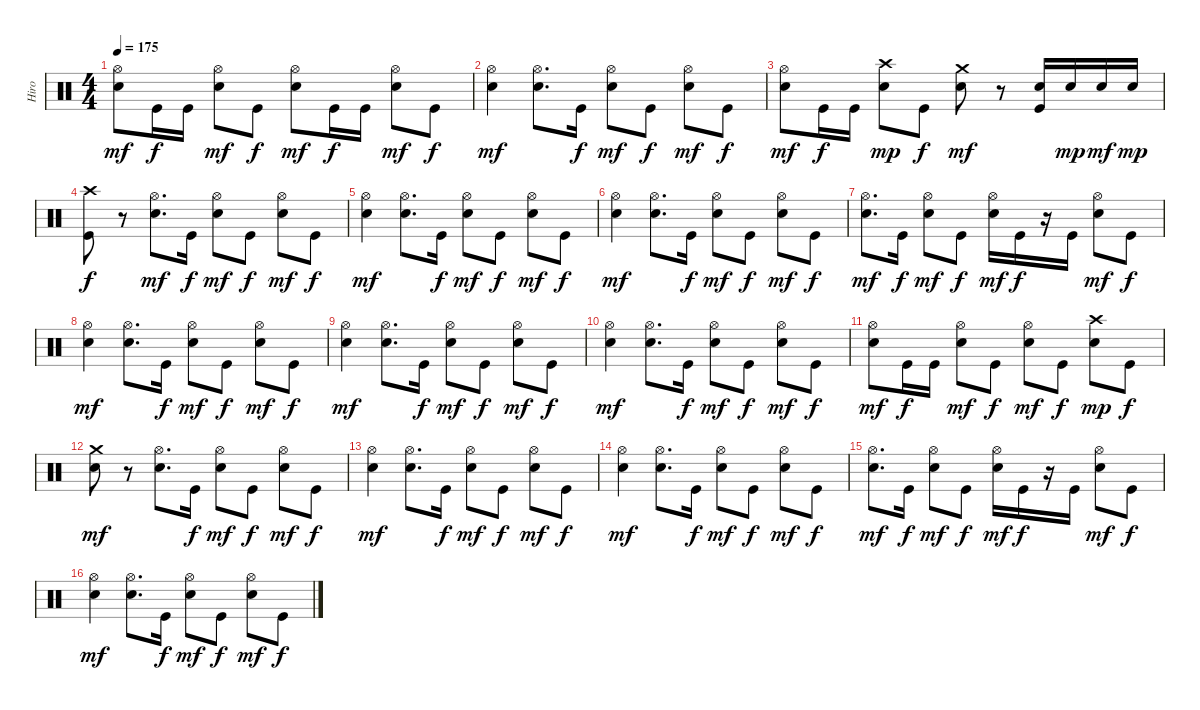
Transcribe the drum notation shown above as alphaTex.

\track ("Hiro" "Hiro") {instrument percussion}
\staff {score}
\articulation defaults
\ts (4 4)
\tempo 175
\clef neutral
\ks c
("Electric Snare (hit)" "Hi-Hat (open)").8{dy mf} "Kick (hit)".16{dy f} "Kick (hit)".16 ("Electric Snare (hit)" "Hi-Hat (open)").8{dy mf} "Kick (hit)".8{dy f} ("Electric Snare (hit)" "Hi-Hat (open)").8{dy mf} "Kick (hit)".16{dy f} "Kick (hit)".16 ("Electric Snare (hit)" "Hi-Hat (open)").8{dy mf} "Kick (hit)".8{dy f} |
("Electric Snare (hit)" "Hi-Hat (open)").4{dy mf} ("Electric Snare (hit)" "Hi-Hat (open)").8{d} "Kick (hit)".16{dy f} ("Electric Snare (hit)" "Hi-Hat (open)").8{dy mf} "Kick (hit)".8{dy f} ("Electric Snare (hit)" "Hi-Hat (open)").8{dy mf} "Kick (hit)".8{dy f} |
("Electric Snare (hit)" "Hi-Hat (open)").8{dy mf} "Kick (hit)".16{dy f} "Kick (hit)".16 ("Crash high (hit)" "Electric Snare (hit)").8{dy mp} "Kick (hit)".8{dy f} ("Crash medium (hit)" "Electric Snare (hit)").8{dy mf} r.8 ("Electric Snare (hit)" "Kick (hit)").16 "Electric Snare (hit)".16{dy mp} "Electric Snare (hit)".16{dy mf} "Electric Snare (hit)".16{dy mp} |
("Crash high (hit)" "Kick (hit)").8{dy f} r.8 ("Electric Snare (hit)" "Hi-Hat (open)").8{d dy mf} "Kick (hit)".16{dy f} ("Electric Snare (hit)" "Hi-Hat (open)").8{dy mf} "Kick (hit)".8{dy f} ("Electric Snare (hit)" "Hi-Hat (open)").8{dy mf} "Kick (hit)".8{dy f} |
("Electric Snare (hit)" "Hi-Hat (open)").4{dy mf} ("Electric Snare (hit)" "Hi-Hat (open)").8{d} "Kick (hit)".16{dy f} ("Electric Snare (hit)" "Hi-Hat (open)").8{dy mf} "Kick (hit)".8{dy f} ("Electric Snare (hit)" "Hi-Hat (open)").8{dy mf} "Kick (hit)".8{dy f} |
("Electric Snare (hit)" "Hi-Hat (open)").4{dy mf} ("Electric Snare (hit)" "Hi-Hat (open)").8{d} "Kick (hit)".16{dy f} ("Electric Snare (hit)" "Hi-Hat (open)").8{dy mf} "Kick (hit)".8{dy f} ("Electric Snare (hit)" "Hi-Hat (open)").8{dy mf} "Kick (hit)".8{dy f} |
("Electric Snare (hit)" "Hi-Hat (open)").8{d dy mf} "Kick (hit)".16{dy f} ("Electric Snare (hit)" "Hi-Hat (open)").8{dy mf} "Kick (hit)".8{dy f} ("Electric Snare (hit)" "Hi-Hat (open)").16{dy mf} "Kick (hit)".16{dy f} r.16 "Kick (hit)".16 ("Electric Snare (hit)" "Hi-Hat (open)").8{dy mf} "Kick (hit)".8{dy f} |
("Electric Snare (hit)" "Hi-Hat (open)").4{dy mf} ("Electric Snare (hit)" "Hi-Hat (open)").8{d} "Kick (hit)".16{dy f} ("Electric Snare (hit)" "Hi-Hat (open)").8{dy mf} "Kick (hit)".8{dy f} ("Electric Snare (hit)" "Hi-Hat (open)").8{dy mf} "Kick (hit)".8{dy f} |
("Electric Snare (hit)" "Hi-Hat (open)").4{dy mf} ("Electric Snare (hit)" "Hi-Hat (open)").8{d} "Kick (hit)".16{dy f} ("Electric Snare (hit)" "Hi-Hat (open)").8{dy mf} "Kick (hit)".8{dy f} ("Electric Snare (hit)" "Hi-Hat (open)").8{dy mf} "Kick (hit)".8{dy f} |
("Electric Snare (hit)" "Hi-Hat (open)").4{dy mf} ("Electric Snare (hit)" "Hi-Hat (open)").8{d} "Kick (hit)".16{dy f} ("Electric Snare (hit)" "Hi-Hat (open)").8{dy mf} "Kick (hit)".8{dy f} ("Electric Snare (hit)" "Hi-Hat (open)").8{dy mf} "Kick (hit)".8{dy f} |
("Electric Snare (hit)" "Hi-Hat (open)").8{dy mf} "Kick (hit)".16{dy f} "Kick (hit)".16 ("Electric Snare (hit)" "Hi-Hat (open)").8{dy mf} "Kick (hit)".8{dy f} ("Electric Snare (hit)" "Hi-Hat (open)").8{dy mf} "Kick (hit)".8{dy f} ("Crash high (hit)" "Electric Snare (hit)").8{dy mp} "Kick (hit)".8{dy f} |
("Crash medium (hit)" "Electric Snare (hit)").8{dy mf} r.8 ("Electric Snare (hit)" "Hi-Hat (open)").8{d} "Kick (hit)".16{dy f} ("Electric Snare (hit)" "Hi-Hat (open)").8{dy mf} "Kick (hit)".8{dy f} ("Electric Snare (hit)" "Hi-Hat (open)").8{dy mf} "Kick (hit)".8{dy f} |
("Electric Snare (hit)" "Hi-Hat (open)").4{dy mf} ("Electric Snare (hit)" "Hi-Hat (open)").8{d} "Kick (hit)".16{dy f} ("Electric Snare (hit)" "Hi-Hat (open)").8{dy mf} "Kick (hit)".8{dy f} ("Electric Snare (hit)" "Hi-Hat (open)").8{dy mf} "Kick (hit)".8{dy f} |
("Electric Snare (hit)" "Hi-Hat (open)").4{dy mf} ("Electric Snare (hit)" "Hi-Hat (open)").8{d} "Kick (hit)".16{dy f} ("Electric Snare (hit)" "Hi-Hat (open)").8{dy mf} "Kick (hit)".8{dy f} ("Electric Snare (hit)" "Hi-Hat (open)").8{dy mf} "Kick (hit)".8{dy f} |
("Electric Snare (hit)" "Hi-Hat (open)").8{d dy mf} "Kick (hit)".16{dy f} ("Electric Snare (hit)" "Hi-Hat (open)").8{dy mf} "Kick (hit)".8{dy f} ("Electric Snare (hit)" "Hi-Hat (open)").16{dy mf} "Kick (hit)".16{dy f} r.16 "Kick (hit)".16 ("Electric Snare (hit)" "Hi-Hat (open)").8{dy mf} "Kick (hit)".8{dy f} |
("Electric Snare (hit)" "Hi-Hat (open)").4{dy mf} ("Electric Snare (hit)" "Hi-Hat (open)").8{d} "Kick (hit)".16{dy f} ("Electric Snare (hit)" "Hi-Hat (open)").8{dy mf} "Kick (hit)".8{dy f} ("Electric Snare (hit)" "Hi-Hat (open)").8{dy mf} "Kick (hit)".8{dy f}
